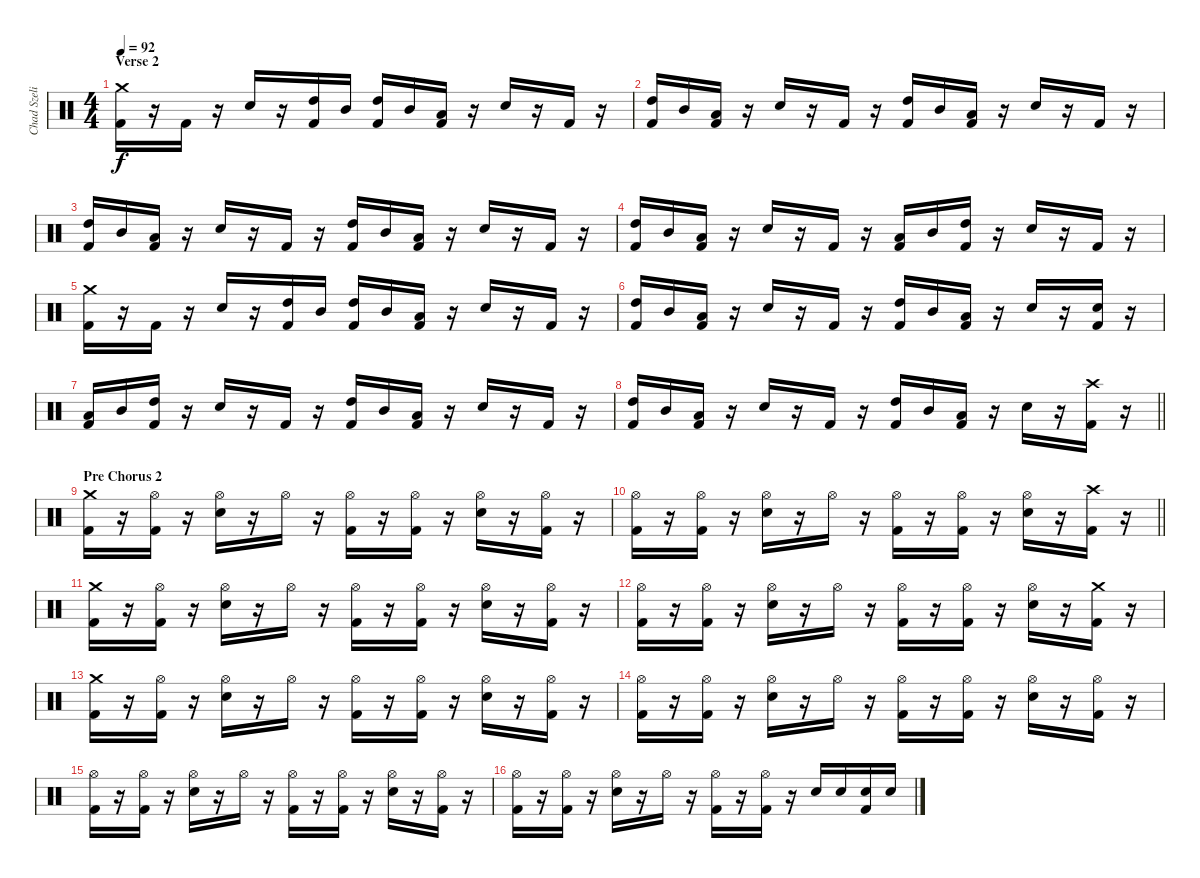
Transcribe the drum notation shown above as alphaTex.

\track ("Chad Szeliga" "Chad Szeli") {instrument percussion}
\staff {score}
\articulation defaults
\ts (4 4)
\section ("" "Verse 2")
\tempo 92
\clef neutral
\ks c
("Crash medium (hit)" "Kick (hit) 2").16{dy f} r.16 "Kick (hit) 2".16 r.16 "Electric Snare (hit)".16 r.16 ("High Tom (hit)" "Kick (hit) 2").16 "Mid Tom (hit)".16 ("High Tom (hit)" "Kick (hit) 2").16 "Mid Tom (hit)".16 ("Low Tom (hit)" "Kick (hit) 2").16 r.16 "Electric Snare (hit)".16 r.16 "Kick (hit) 2".16 r.16 |
("High Tom (hit)" "Kick (hit) 2").16 "Mid Tom (hit)".16 ("Low Tom (hit)" "Kick (hit) 2").16 r.16 "Electric Snare (hit)".16 r.16 "Kick (hit) 2".16 r.16 ("High Tom (hit)" "Kick (hit) 2").16 "Mid Tom (hit)".16 ("Low Tom (hit)" "Kick (hit) 2").16 r.16 "Electric Snare (hit)".16 r.16 "Kick (hit) 2".16 r.16 |
("High Tom (hit)" "Kick (hit) 2").16 "Mid Tom (hit)".16 ("Low Tom (hit)" "Kick (hit) 2").16 r.16 "Electric Snare (hit)".16 r.16 "Kick (hit) 2".16 r.16 ("High Tom (hit)" "Kick (hit) 2").16 "Mid Tom (hit)".16 ("Low Tom (hit)" "Kick (hit) 2").16 r.16 "Electric Snare (hit)".16 r.16 "Kick (hit) 2".16 r.16 |
("High Tom (hit)" "Kick (hit) 2").16 "Mid Tom (hit)".16 ("Low Tom (hit)" "Kick (hit) 2").16 r.16 "Electric Snare (hit)".16 r.16 "Kick (hit) 2".16 r.16 ("Low Tom (hit)" "Kick (hit) 2").16 "Mid Tom (hit)".16 ("High Tom (hit)" "Kick (hit) 2").16 r.16 "Electric Snare (hit)".16 r.16 "Kick (hit) 2".16 r.16 |
("Crash medium (hit)" "Kick (hit) 2").16 r.16 "Kick (hit) 2".16 r.16 "Electric Snare (hit)".16 r.16 ("High Tom (hit)" "Kick (hit) 2").16 "Mid Tom (hit)".16 ("High Tom (hit)" "Kick (hit) 2").16 "Mid Tom (hit)".16 ("Low Tom (hit)" "Kick (hit) 2").16 r.16 "Electric Snare (hit)".16 r.16 "Kick (hit) 2".16 r.16 |
("High Tom (hit)" "Kick (hit) 2").16 "Mid Tom (hit)".16 ("Low Tom (hit)" "Kick (hit) 2").16 r.16 "Electric Snare (hit)".16 r.16 "Kick (hit) 2".16 r.16 ("High Tom (hit)" "Kick (hit) 2").16 "Mid Tom (hit)".16 ("Low Tom (hit)" "Kick (hit) 2").16 r.16 "Electric Snare (hit)".16 r.16 ("Electric Snare (hit)" "Kick (hit) 2").16 r.16 |
("Low Tom (hit)" "Kick (hit) 2").16 "Mid Tom (hit)".16 ("High Tom (hit)" "Kick (hit) 2").16 r.16 "Electric Snare (hit)".16 r.16 "Kick (hit) 2".16 r.16 ("High Tom (hit)" "Kick (hit) 2").16 "Mid Tom (hit)".16 ("Low Tom (hit)" "Kick (hit) 2").16 r.16 "Electric Snare (hit)".16 r.16 "Kick (hit) 2".16 r.16 |
\barLineRight lightlight
("High Tom (hit)" "Kick (hit) 2").16 "Mid Tom (hit)".16 ("Low Tom (hit)" "Kick (hit) 2").16 r.16 "Electric Snare (hit)".16 r.16 "Kick (hit) 2".16 r.16 ("High Tom (hit)" "Kick (hit) 2").16 "Mid Tom (hit)".16 ("Low Tom (hit)" "Kick (hit) 2").16 r.16 "Electric Snare (hit)".16 r.16 ("Crash high (hit)" "Kick (hit) 2").16 r.16 |
\section ("" "Pre Chorus 2")
("Crash medium (hit)" "Kick (hit) 2").16 r.16 ("Hi-Hat (open)" "Kick (hit) 2").16 r.16 ("Hi-Hat (open)" "Electric Snare (hit)").16 r.16 "Hi-Hat (open)".16 r.16 ("Hi-Hat (open)" "Kick (hit) 2").16 r.16 ("Hi-Hat (open)" "Kick (hit) 2").16 r.16 ("Hi-Hat (open)" "Electric Snare (hit)").16 r.16 ("Hi-Hat (open)" "Kick (hit) 2").16 r.16 |
\barLineRight lightlight
("Hi-Hat (open)" "Kick (hit) 2").16 r.16 ("Hi-Hat (open)" "Kick (hit) 2").16 r.16 ("Hi-Hat (open)" "Electric Snare (hit)").16 r.16 "Hi-Hat (open)".16 r.16 ("Hi-Hat (open)" "Kick (hit) 2").16 r.16 ("Hi-Hat (open)" "Kick (hit) 2").16 r.16 ("Hi-Hat (open)" "Electric Snare (hit)").16 r.16 ("Crash high (hit)" "Kick (hit) 2").16 r.16 |
("Crash medium (hit)" "Kick (hit) 2").16 r.16 ("Hi-Hat (open)" "Kick (hit) 2").16 r.16 ("Hi-Hat (open)" "Electric Snare (hit)").16 r.16 "Hi-Hat (open)".16 r.16 ("Hi-Hat (open)" "Kick (hit) 2").16 r.16 ("Hi-Hat (open)" "Kick (hit) 2").16 r.16 ("Hi-Hat (open)" "Electric Snare (hit)").16 r.16 ("Hi-Hat (open)" "Kick (hit) 2").16 r.16 |
("Hi-Hat (open)" "Kick (hit) 2").16 r.16 ("Hi-Hat (open)" "Kick (hit) 2").16 r.16 ("Hi-Hat (open)" "Electric Snare (hit)").16 r.16 "Hi-Hat (open)".16 r.16 ("Hi-Hat (open)" "Kick (hit) 2").16 r.16 ("Hi-Hat (open)" "Kick (hit) 2").16 r.16 ("Hi-Hat (open)" "Electric Snare (hit)").16 r.16 ("Crash medium (hit)" "Kick (hit) 2").16 r.16 |
("Crash medium (hit)" "Kick (hit) 2").16 r.16 ("Hi-Hat (open)" "Kick (hit) 2").16 r.16 ("Hi-Hat (open)" "Electric Snare (hit)").16 r.16 "Hi-Hat (open)".16 r.16 ("Hi-Hat (open)" "Kick (hit) 2").16 r.16 ("Hi-Hat (open)" "Kick (hit) 2").16 r.16 ("Hi-Hat (open)" "Electric Snare (hit)").16 r.16 ("Hi-Hat (open)" "Kick (hit) 2").16 r.16 |
("Hi-Hat (open)" "Kick (hit) 2").16 r.16 ("Hi-Hat (open)" "Kick (hit) 2").16 r.16 ("Hi-Hat (open)" "Electric Snare (hit)").16 r.16 "Hi-Hat (open)".16 r.16 ("Hi-Hat (open)" "Kick (hit) 2").16 r.16 ("Hi-Hat (open)" "Kick (hit) 2").16 r.16 ("Hi-Hat (open)" "Electric Snare (hit)").16 r.16 ("Hi-Hat (open)" "Kick (hit) 2").16 r.16 |
("Hi-Hat (open)" "Kick (hit) 2").16 r.16 ("Hi-Hat (open)" "Kick (hit) 2").16 r.16 ("Hi-Hat (open)" "Electric Snare (hit)").16 r.16 "Hi-Hat (open)".16 r.16 ("Hi-Hat (open)" "Kick (hit) 2").16 r.16 ("Hi-Hat (open)" "Kick (hit) 2").16 r.16 ("Hi-Hat (open)" "Electric Snare (hit)").16 r.16 ("Hi-Hat (open)" "Kick (hit) 2").16 r.16 |
("Hi-Hat (open)" "Kick (hit) 2").16 r.16 ("Hi-Hat (open)" "Kick (hit) 2").16 r.16 ("Hi-Hat (open)" "Electric Snare (hit)").16 r.16 "Hi-Hat (open)".16 r.16 ("Hi-Hat (open)" "Kick (hit) 2").16 r.16 ("Hi-Hat (open)" "Kick (hit) 2").16 r.16 "Electric Snare (hit)".16 "Electric Snare (hit)".16 ("Electric Snare (hit)" "Kick (hit) 2").16 "Electric Snare (hit)".16
